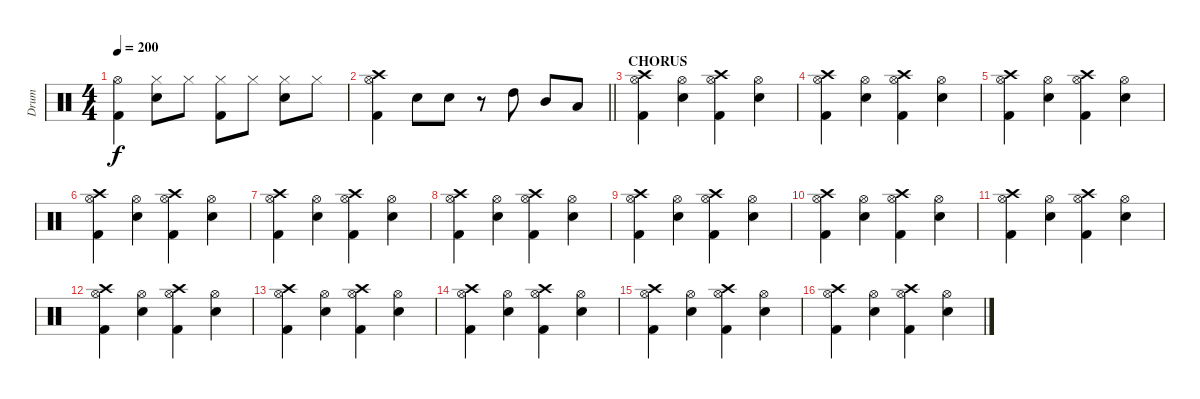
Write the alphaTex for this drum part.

\track ("Drum" "Drum") {instrument percussion}
\staff {score}
\articulation defaults
\ts (4 4)
\tempo 200
\clef neutral
\ks c
("Hi-Hat (open)" "Kick (hit) 2").4{dy f} ("Hi-Hat (closed)" "Snare (hit) 2").8 "Hi-Hat (closed)".8 ("Hi-Hat (closed)" "Kick (hit) 2").8 "Hi-Hat (closed)".8 ("Hi-Hat (closed)" "Snare (hit) 2").8 "Hi-Hat (closed)".8 |
\barLineRight lightlight
("Crash high (hit)" "Hi-Hat (open)" "Kick (hit) 2").4 "Snare (hit) 2".8 "Snare (hit) 2".8 r.8 "High Tom (hit)".8 "Mid Tom (hit)".8 "Low Tom (hit)".8 |
\section ("" "CHORUS")
("Crash high (hit)" "Hi-Hat (open)" "Kick (hit) 2").4 ("Hi-Hat (open)" "Snare (hit) 2").4 ("Crash high (hit)" "Hi-Hat (open)" "Kick (hit) 2").4 ("Hi-Hat (open)" "Snare (hit) 2").4 |
("Crash high (hit)" "Hi-Hat (open)" "Kick (hit) 2").4 ("Hi-Hat (open)" "Snare (hit) 2").4 ("Crash high (hit)" "Hi-Hat (open)" "Kick (hit) 2").4 ("Hi-Hat (open)" "Snare (hit) 2").4 |
("Crash high (hit)" "Hi-Hat (open)" "Kick (hit) 2").4 ("Hi-Hat (open)" "Snare (hit) 2").4 ("Crash high (hit)" "Hi-Hat (open)" "Kick (hit) 2").4 ("Hi-Hat (open)" "Snare (hit) 2").4 |
("Crash high (hit)" "Hi-Hat (open)" "Kick (hit) 2").4 ("Hi-Hat (open)" "Snare (hit) 2").4 ("Crash high (hit)" "Hi-Hat (open)" "Kick (hit) 2").4 ("Hi-Hat (open)" "Snare (hit) 2").4 |
("Crash high (hit)" "Hi-Hat (open)" "Kick (hit) 2").4 ("Hi-Hat (open)" "Snare (hit) 2").4 ("Crash high (hit)" "Hi-Hat (open)" "Kick (hit) 2").4 ("Hi-Hat (open)" "Snare (hit) 2").4 |
("Crash high (hit)" "Hi-Hat (open)" "Kick (hit) 2").4 ("Hi-Hat (open)" "Snare (hit) 2").4 ("Crash high (hit)" "Hi-Hat (open)" "Kick (hit) 2").4 ("Hi-Hat (open)" "Snare (hit) 2").4 |
("Crash high (hit)" "Hi-Hat (open)" "Kick (hit) 2").4 ("Hi-Hat (open)" "Snare (hit) 2").4 ("Crash high (hit)" "Hi-Hat (open)" "Kick (hit) 2").4 ("Hi-Hat (open)" "Snare (hit) 2").4 |
("Crash high (hit)" "Hi-Hat (open)" "Kick (hit) 2").4 ("Hi-Hat (open)" "Snare (hit) 2").4 ("Crash high (hit)" "Hi-Hat (open)" "Kick (hit) 2").4 ("Hi-Hat (open)" "Snare (hit) 2").4 |
("Crash high (hit)" "Hi-Hat (open)" "Kick (hit) 2").4 ("Hi-Hat (open)" "Snare (hit) 2").4 ("Crash high (hit)" "Hi-Hat (open)" "Kick (hit) 2").4 ("Hi-Hat (open)" "Snare (hit) 2").4 |
("Crash high (hit)" "Hi-Hat (open)" "Kick (hit) 2").4 ("Hi-Hat (open)" "Snare (hit) 2").4 ("Crash high (hit)" "Hi-Hat (open)" "Kick (hit) 2").4 ("Hi-Hat (open)" "Snare (hit) 2").4 |
("Crash high (hit)" "Hi-Hat (open)" "Kick (hit) 2").4 ("Hi-Hat (open)" "Snare (hit) 2").4 ("Crash high (hit)" "Hi-Hat (open)" "Kick (hit) 2").4 ("Hi-Hat (open)" "Snare (hit) 2").4 |
("Crash high (hit)" "Hi-Hat (open)" "Kick (hit) 2").4 ("Hi-Hat (open)" "Snare (hit) 2").4 ("Crash high (hit)" "Hi-Hat (open)" "Kick (hit) 2").4 ("Hi-Hat (open)" "Snare (hit) 2").4 |
("Crash high (hit)" "Hi-Hat (open)" "Kick (hit) 2").4 ("Hi-Hat (open)" "Snare (hit) 2").4 ("Crash high (hit)" "Hi-Hat (open)" "Kick (hit) 2").4 ("Hi-Hat (open)" "Snare (hit) 2").4 |
("Crash high (hit)" "Hi-Hat (open)" "Kick (hit) 2").4 ("Hi-Hat (open)" "Snare (hit) 2").4 ("Crash high (hit)" "Hi-Hat (open)" "Kick (hit) 2").4 ("Hi-Hat (open)" "Snare (hit) 2").4
